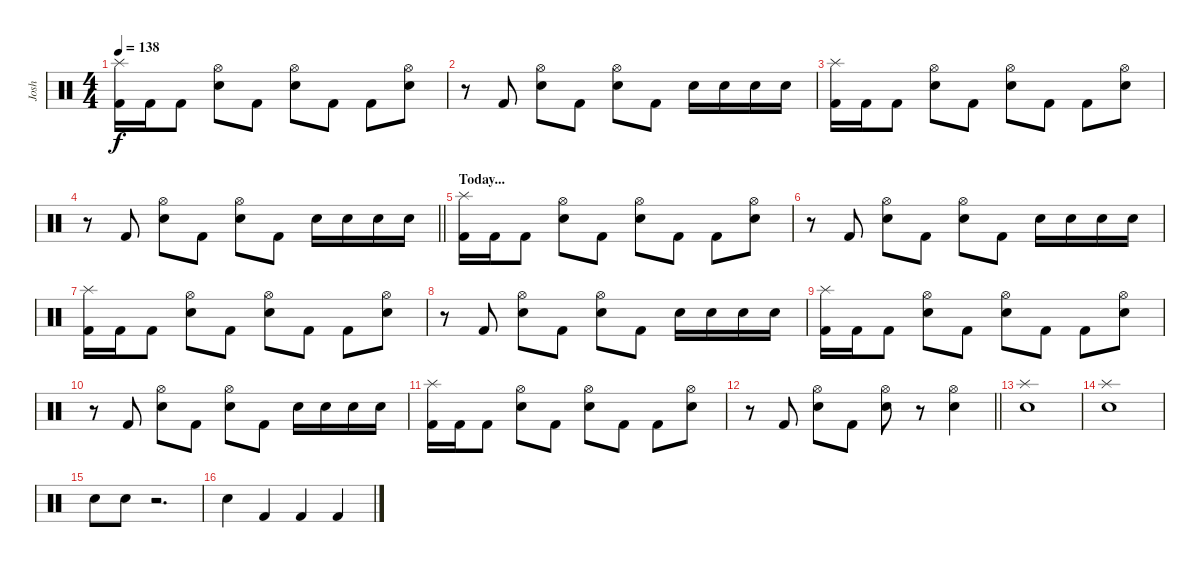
\track ("Josh" "Josh") {instrument percussion}
\staff {score}
\articulation defaults
\ts (4 4)
\tempo 138
\clef neutral
\ks c
("Splash (hit)" "Kick (hit) 2").16{dy f} "Kick (hit) 2".16 "Kick (hit) 2".8 ("Hi-Hat (open)" "Electric Snare (hit)").8 "Kick (hit) 2".8 ("Hi-Hat (open)" "Electric Snare (hit)").8 "Kick (hit) 2".8 "Kick (hit) 2".8 ("Hi-Hat (open)" "Electric Snare (hit)").8 |
r.8 "Kick (hit) 2".8 ("Hi-Hat (open)" "Electric Snare (hit)").8 "Kick (hit) 2".8 ("Hi-Hat (open)" "Electric Snare (hit)").8 "Kick (hit) 2".8 "Electric Snare (hit)".16 "Electric Snare (hit)".16 "Electric Snare (hit)".16 "Electric Snare (hit)".16 |
("Splash (hit)" "Kick (hit) 2").16 "Kick (hit) 2".16 "Kick (hit) 2".8 ("Hi-Hat (open)" "Electric Snare (hit)").8 "Kick (hit) 2".8 ("Hi-Hat (open)" "Electric Snare (hit)").8 "Kick (hit) 2".8 "Kick (hit) 2".8 ("Hi-Hat (open)" "Electric Snare (hit)").8 |
\barLineRight lightlight
r.8 "Kick (hit) 2".8 ("Hi-Hat (open)" "Electric Snare (hit)").8 "Kick (hit) 2".8 ("Hi-Hat (open)" "Electric Snare (hit)").8 "Kick (hit) 2".8 "Electric Snare (hit)".16 "Electric Snare (hit)".16 "Electric Snare (hit)".16 "Electric Snare (hit)".16 |
\section ("" "Today...")
("Splash (hit)" "Kick (hit) 2").16 "Kick (hit) 2".16 "Kick (hit) 2".8 ("Hi-Hat (open)" "Electric Snare (hit)").8 "Kick (hit) 2".8 ("Hi-Hat (open)" "Electric Snare (hit)").8 "Kick (hit) 2".8 "Kick (hit) 2".8 ("Hi-Hat (open)" "Electric Snare (hit)").8 |
r.8 "Kick (hit) 2".8 ("Hi-Hat (open)" "Electric Snare (hit)").8 "Kick (hit) 2".8 ("Hi-Hat (open)" "Electric Snare (hit)").8 "Kick (hit) 2".8 "Electric Snare (hit)".16 "Electric Snare (hit)".16 "Electric Snare (hit)".16 "Electric Snare (hit)".16 |
("Splash (hit)" "Kick (hit) 2").16 "Kick (hit) 2".16 "Kick (hit) 2".8 ("Hi-Hat (open)" "Electric Snare (hit)").8 "Kick (hit) 2".8 ("Hi-Hat (open)" "Electric Snare (hit)").8 "Kick (hit) 2".8 "Kick (hit) 2".8 ("Hi-Hat (open)" "Electric Snare (hit)").8 |
r.8 "Kick (hit) 2".8 ("Hi-Hat (open)" "Electric Snare (hit)").8 "Kick (hit) 2".8 ("Hi-Hat (open)" "Electric Snare (hit)").8 "Kick (hit) 2".8 "Electric Snare (hit)".16 "Electric Snare (hit)".16 "Electric Snare (hit)".16 "Electric Snare (hit)".16 |
("Splash (hit)" "Kick (hit) 2").16 "Kick (hit) 2".16 "Kick (hit) 2".8 ("Hi-Hat (open)" "Electric Snare (hit)").8 "Kick (hit) 2".8 ("Hi-Hat (open)" "Electric Snare (hit)").8 "Kick (hit) 2".8 "Kick (hit) 2".8 ("Hi-Hat (open)" "Electric Snare (hit)").8 |
r.8 "Kick (hit) 2".8 ("Hi-Hat (open)" "Electric Snare (hit)").8 "Kick (hit) 2".8 ("Hi-Hat (open)" "Electric Snare (hit)").8 "Kick (hit) 2".8 "Electric Snare (hit)".16 "Electric Snare (hit)".16 "Electric Snare (hit)".16 "Electric Snare (hit)".16 |
("Splash (hit)" "Kick (hit) 2").16 "Kick (hit) 2".16 "Kick (hit) 2".8 ("Hi-Hat (open)" "Electric Snare (hit)").8 "Kick (hit) 2".8 ("Hi-Hat (open)" "Electric Snare (hit)").8 "Kick (hit) 2".8 "Kick (hit) 2".8 ("Hi-Hat (open)" "Electric Snare (hit)").8 |
\barLineRight lightlight
r.8 "Kick (hit) 2".8 ("Hi-Hat (open)" "Electric Snare (hit)").8 "Kick (hit) 2".8 ("Hi-Hat (open)" "Electric Snare (hit)").8 r.8 ("Hi-Hat (open)" "Electric Snare (hit)").4 |
("Splash (hit)" "Electric Snare (hit)").1 |
("Splash (hit)" "Electric Snare (hit)").1 |
"Electric Snare (hit)".8 "Electric Snare (hit)".8 r.2{d} |
"Electric Snare (hit)".4 "Kick (hit) 2".4 "Kick (hit) 2".4 "Kick (hit) 2".4
